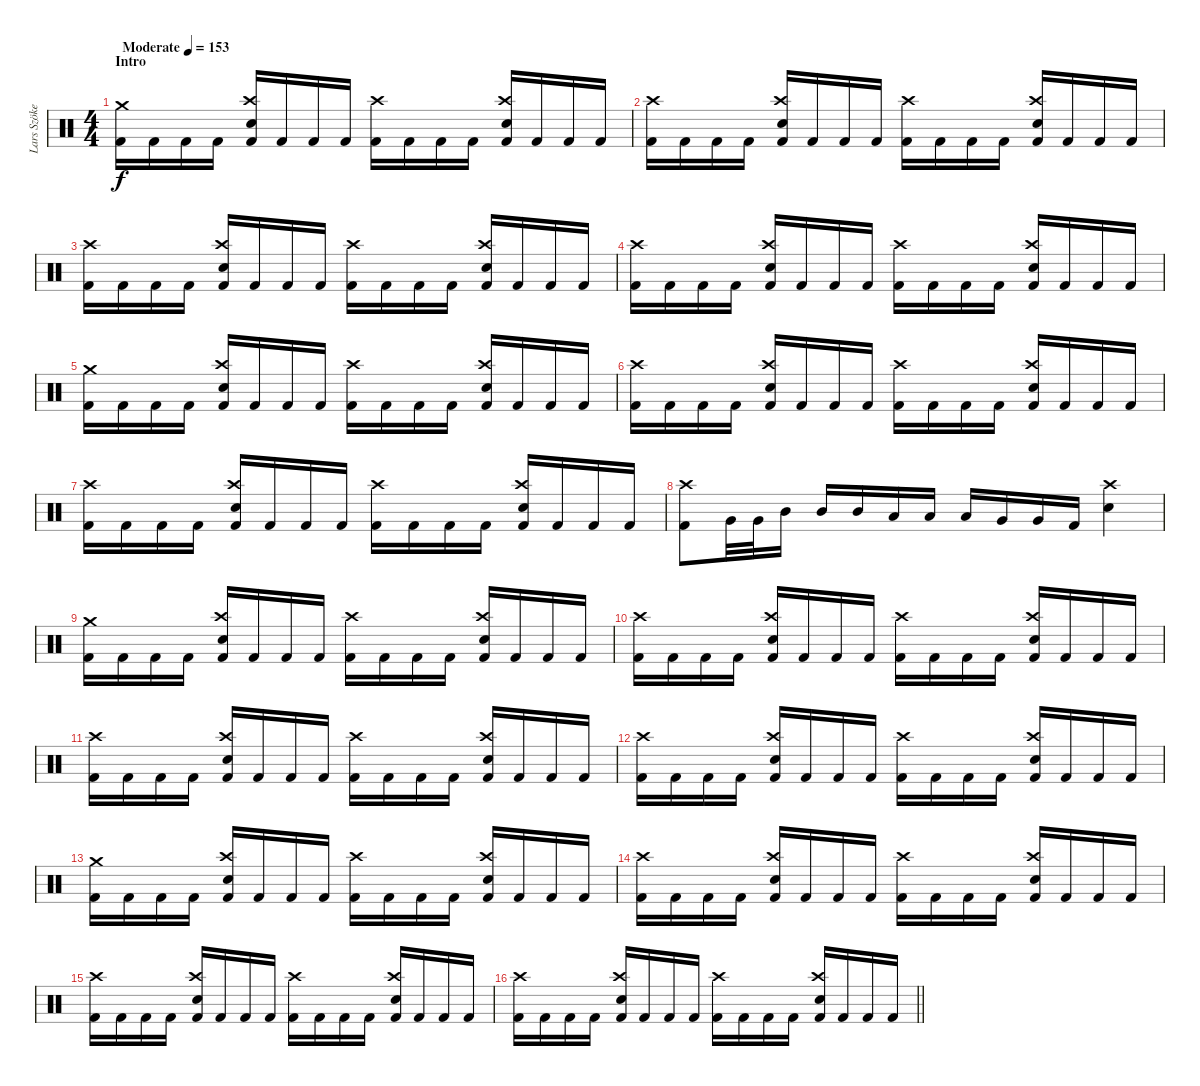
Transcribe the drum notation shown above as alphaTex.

\track ("Lars Szöke" "Lars Szöke") {instrument percussion}
\staff {score}
\articulation defaults
\ts (4 4)
\section ("" "Intro")
\tempo (153 "Moderate")
\clef neutral
\ks c
("Crash medium (hit)" "Kick (hit) 2").16{dy f} "Kick (hit) 2".16 "Kick (hit) 2".16 "Kick (hit) 2".16 ("Crash high (hit)" "Electric Snare (hit)" "Kick (hit) 2").16 "Kick (hit) 2".16 "Kick (hit) 2".16 "Kick (hit) 2".16 ("Crash high (hit)" "Kick (hit) 2").16 "Kick (hit) 2".16 "Kick (hit) 2".16 "Kick (hit) 2".16 ("Crash high (hit)" "Electric Snare (hit)" "Kick (hit) 2").16 "Kick (hit) 2".16 "Kick (hit) 2".16 "Kick (hit) 2".16 |
("Crash high (hit)" "Kick (hit) 2").16 "Kick (hit) 2".16 "Kick (hit) 2".16 "Kick (hit) 2".16 ("Crash high (hit)" "Electric Snare (hit)" "Kick (hit) 2").16 "Kick (hit) 2".16 "Kick (hit) 2".16 "Kick (hit) 2".16 ("Crash high (hit)" "Kick (hit) 2").16 "Kick (hit) 2".16 "Kick (hit) 2".16 "Kick (hit) 2".16 ("Crash high (hit)" "Electric Snare (hit)" "Kick (hit) 2").16 "Kick (hit) 2".16 "Kick (hit) 2".16 "Kick (hit) 2".16 |
("Crash high (hit)" "Kick (hit) 2").16 "Kick (hit) 2".16 "Kick (hit) 2".16 "Kick (hit) 2".16 ("Crash high (hit)" "Electric Snare (hit)" "Kick (hit) 2").16 "Kick (hit) 2".16 "Kick (hit) 2".16 "Kick (hit) 2".16 ("Crash high (hit)" "Kick (hit) 2").16 "Kick (hit) 2".16 "Kick (hit) 2".16 "Kick (hit) 2".16 ("Crash high (hit)" "Electric Snare (hit)" "Kick (hit) 2").16 "Kick (hit) 2".16 "Kick (hit) 2".16 "Kick (hit) 2".16 |
("Crash high (hit)" "Kick (hit) 2").16 "Kick (hit) 2".16 "Kick (hit) 2".16 "Kick (hit) 2".16 ("Crash high (hit)" "Electric Snare (hit)" "Kick (hit) 2").16 "Kick (hit) 2".16 "Kick (hit) 2".16 "Kick (hit) 2".16 ("Crash high (hit)" "Kick (hit) 2").16 "Kick (hit) 2".16 "Kick (hit) 2".16 "Kick (hit) 2".16 ("Crash high (hit)" "Electric Snare (hit)" "Kick (hit) 2").16 "Kick (hit) 2".16 "Kick (hit) 2".16 "Kick (hit) 2".16 |
("Crash medium (hit)" "Kick (hit) 2").16 "Kick (hit) 2".16 "Kick (hit) 2".16 "Kick (hit) 2".16 ("Crash high (hit)" "Electric Snare (hit)" "Kick (hit) 2").16 "Kick (hit) 2".16 "Kick (hit) 2".16 "Kick (hit) 2".16 ("Crash high (hit)" "Kick (hit) 2").16 "Kick (hit) 2".16 "Kick (hit) 2".16 "Kick (hit) 2".16 ("Crash high (hit)" "Electric Snare (hit)" "Kick (hit) 2").16 "Kick (hit) 2".16 "Kick (hit) 2".16 "Kick (hit) 2".16 |
("Crash high (hit)" "Kick (hit) 2").16 "Kick (hit) 2".16 "Kick (hit) 2".16 "Kick (hit) 2".16 ("Crash high (hit)" "Electric Snare (hit)" "Kick (hit) 2").16 "Kick (hit) 2".16 "Kick (hit) 2".16 "Kick (hit) 2".16 ("Crash high (hit)" "Kick (hit) 2").16 "Kick (hit) 2".16 "Kick (hit) 2".16 "Kick (hit) 2".16 ("Crash high (hit)" "Electric Snare (hit)" "Kick (hit) 2").16 "Kick (hit) 2".16 "Kick (hit) 2".16 "Kick (hit) 2".16 |
("Crash high (hit)" "Kick (hit) 2").16 "Kick (hit) 2".16 "Kick (hit) 2".16 "Kick (hit) 2".16 ("Crash high (hit)" "Electric Snare (hit)" "Kick (hit) 2").16 "Kick (hit) 2".16 "Kick (hit) 2".16 "Kick (hit) 2".16 ("Crash high (hit)" "Kick (hit) 2").16 "Kick (hit) 2".16 "Kick (hit) 2".16 "Kick (hit) 2".16 ("Crash high (hit)" "Electric Snare (hit)" "Kick (hit) 2").16 "Kick (hit) 2".16 "Kick (hit) 2".16 "Kick (hit) 2".16 |
("Crash high (hit)" "Kick (hit) 2").8 "Very Low Tom (hit)".32 "Very Low Tom (hit)".32 "Mid Tom (hit)".16 "Mid Tom (hit)".16 "Mid Tom (hit)".16 "Low Tom (hit)".16 "Low Tom (hit)".16 "Low Tom (hit)".16 "Very Low Tom (hit)".16 "Very Low Tom (hit)".16 "Kick (hit) 2".16 ("Crash high (hit)" "Snare (hit) 2").4 |
("Crash medium (hit)" "Kick (hit) 2").16 "Kick (hit) 2".16 "Kick (hit) 2".16 "Kick (hit) 2".16 ("Crash high (hit)" "Electric Snare (hit)" "Kick (hit) 2").16 "Kick (hit) 2".16 "Kick (hit) 2".16 "Kick (hit) 2".16 ("Crash high (hit)" "Kick (hit) 2").16 "Kick (hit) 2".16 "Kick (hit) 2".16 "Kick (hit) 2".16 ("Crash high (hit)" "Electric Snare (hit)" "Kick (hit) 2").16 "Kick (hit) 2".16 "Kick (hit) 2".16 "Kick (hit) 2".16 |
("Crash high (hit)" "Kick (hit) 2").16 "Kick (hit) 2".16 "Kick (hit) 2".16 "Kick (hit) 2".16 ("Crash high (hit)" "Electric Snare (hit)" "Kick (hit) 2").16 "Kick (hit) 2".16 "Kick (hit) 2".16 "Kick (hit) 2".16 ("Crash high (hit)" "Kick (hit) 2").16 "Kick (hit) 2".16 "Kick (hit) 2".16 "Kick (hit) 2".16 ("Crash high (hit)" "Electric Snare (hit)" "Kick (hit) 2").16 "Kick (hit) 2".16 "Kick (hit) 2".16 "Kick (hit) 2".16 |
("Crash high (hit)" "Kick (hit) 2").16 "Kick (hit) 2".16 "Kick (hit) 2".16 "Kick (hit) 2".16 ("Crash high (hit)" "Electric Snare (hit)" "Kick (hit) 2").16 "Kick (hit) 2".16 "Kick (hit) 2".16 "Kick (hit) 2".16 ("Crash high (hit)" "Kick (hit) 2").16 "Kick (hit) 2".16 "Kick (hit) 2".16 "Kick (hit) 2".16 ("Crash high (hit)" "Electric Snare (hit)" "Kick (hit) 2").16 "Kick (hit) 2".16 "Kick (hit) 2".16 "Kick (hit) 2".16 |
("Crash high (hit)" "Kick (hit) 2").16 "Kick (hit) 2".16 "Kick (hit) 2".16 "Kick (hit) 2".16 ("Crash high (hit)" "Electric Snare (hit)" "Kick (hit) 2").16 "Kick (hit) 2".16 "Kick (hit) 2".16 "Kick (hit) 2".16 ("Crash high (hit)" "Kick (hit) 2").16 "Kick (hit) 2".16 "Kick (hit) 2".16 "Kick (hit) 2".16 ("Crash high (hit)" "Electric Snare (hit)" "Kick (hit) 2").16 "Kick (hit) 2".16 "Kick (hit) 2".16 "Kick (hit) 2".16 |
("Crash medium (hit)" "Kick (hit) 2").16 "Kick (hit) 2".16 "Kick (hit) 2".16 "Kick (hit) 2".16 ("Crash high (hit)" "Electric Snare (hit)" "Kick (hit) 2").16 "Kick (hit) 2".16 "Kick (hit) 2".16 "Kick (hit) 2".16 ("Crash high (hit)" "Kick (hit) 2").16 "Kick (hit) 2".16 "Kick (hit) 2".16 "Kick (hit) 2".16 ("Crash high (hit)" "Electric Snare (hit)" "Kick (hit) 2").16 "Kick (hit) 2".16 "Kick (hit) 2".16 "Kick (hit) 2".16 |
("Crash high (hit)" "Kick (hit) 2").16 "Kick (hit) 2".16 "Kick (hit) 2".16 "Kick (hit) 2".16 ("Crash high (hit)" "Electric Snare (hit)" "Kick (hit) 2").16 "Kick (hit) 2".16 "Kick (hit) 2".16 "Kick (hit) 2".16 ("Crash high (hit)" "Kick (hit) 2").16 "Kick (hit) 2".16 "Kick (hit) 2".16 "Kick (hit) 2".16 ("Crash high (hit)" "Electric Snare (hit)" "Kick (hit) 2").16 "Kick (hit) 2".16 "Kick (hit) 2".16 "Kick (hit) 2".16 |
("Crash high (hit)" "Kick (hit) 2").16 "Kick (hit) 2".16 "Kick (hit) 2".16 "Kick (hit) 2".16 ("Crash high (hit)" "Electric Snare (hit)" "Kick (hit) 2").16 "Kick (hit) 2".16 "Kick (hit) 2".16 "Kick (hit) 2".16 ("Crash high (hit)" "Kick (hit) 2").16 "Kick (hit) 2".16 "Kick (hit) 2".16 "Kick (hit) 2".16 ("Crash high (hit)" "Electric Snare (hit)" "Kick (hit) 2").16 "Kick (hit) 2".16 "Kick (hit) 2".16 "Kick (hit) 2".16 |
\barLineRight lightlight
("Crash high (hit)" "Kick (hit) 2").16 "Kick (hit) 2".16 "Kick (hit) 2".16 "Kick (hit) 2".16 ("Crash high (hit)" "Electric Snare (hit)" "Kick (hit) 2").16 "Kick (hit) 2".16 "Kick (hit) 2".16 "Kick (hit) 2".16 ("Crash high (hit)" "Kick (hit) 2").16 "Kick (hit) 2".16 "Kick (hit) 2".16 "Kick (hit) 2".16 ("Crash high (hit)" "Electric Snare (hit)" "Kick (hit) 2").16 "Kick (hit) 2".16 "Kick (hit) 2".16 "Kick (hit) 2".16
